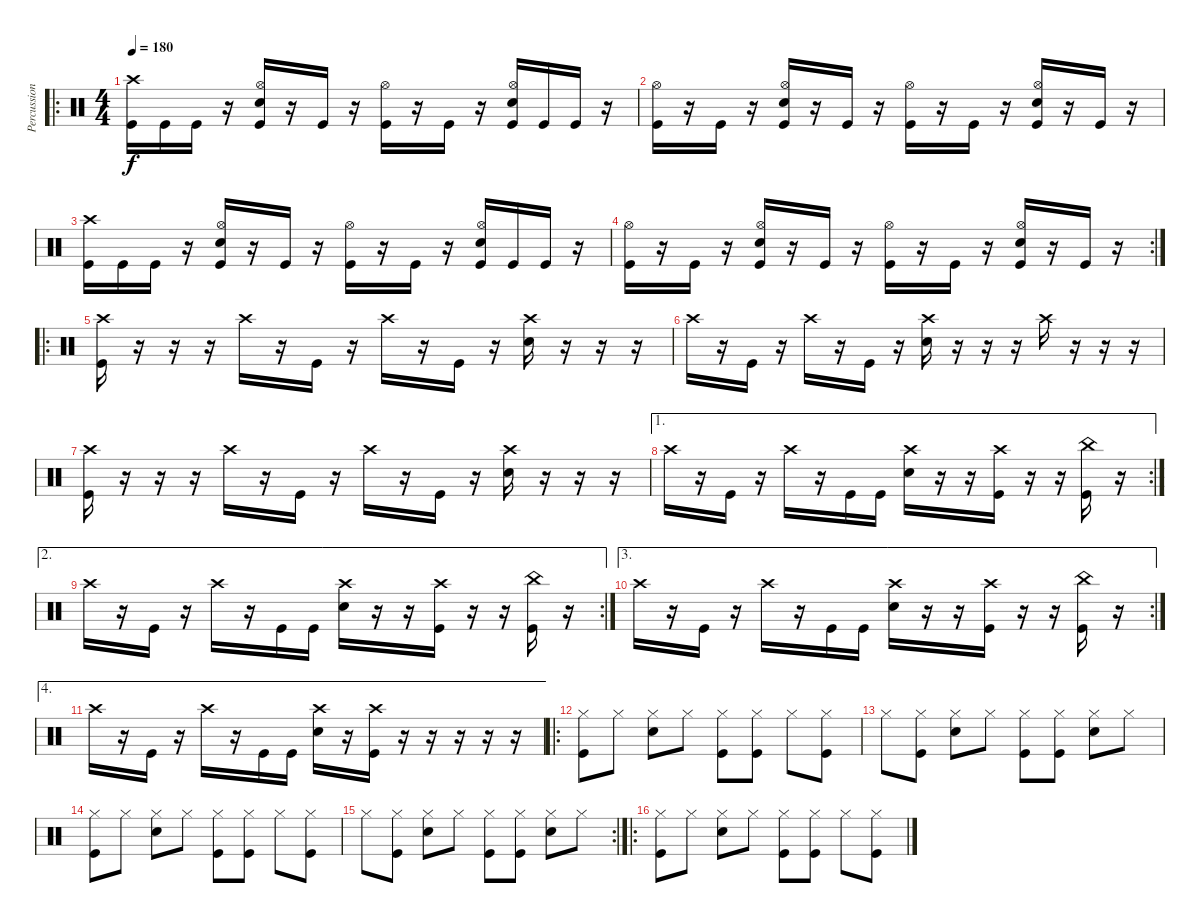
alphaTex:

\track ("Percussion" "Percussion") {instrument percussion}
\staff {score}
\articulation defaults
\ro
\ts (4 4)
\tempo 180
\clef neutral
\ks c
("Crash high (hit)" "Kick (hit)").16{dy f} "Kick (hit)".16 "Kick (hit)".16 r.16 ("Hi-Hat (open)" "Electric Snare (hit)" "Kick (hit)").16 r.16 "Kick (hit)".16 r.16 ("Hi-Hat (open)" "Kick (hit)").16 r.16 "Kick (hit)".16 r.16 ("Hi-Hat (open)" "Electric Snare (hit)" "Kick (hit)").16 "Kick (hit)".16 "Kick (hit)".16 r.16 |
("Hi-Hat (open)" "Kick (hit)").16 r.16 "Kick (hit)".16 r.16 ("Hi-Hat (open)" "Electric Snare (hit)" "Kick (hit)").16 r.16 "Kick (hit)".16 r.16 ("Hi-Hat (open)" "Kick (hit)").16 r.16 "Kick (hit)".16 r.16 ("Hi-Hat (open)" "Electric Snare (hit)" "Kick (hit)").16 r.16 "Kick (hit)".16 r.16 |
("Crash high (hit)" "Kick (hit)").16 "Kick (hit)".16 "Kick (hit)".16 r.16 ("Hi-Hat (open)" "Electric Snare (hit)" "Kick (hit)").16 r.16 "Kick (hit)".16 r.16 ("Hi-Hat (open)" "Kick (hit)").16 r.16 "Kick (hit)".16 r.16 ("Hi-Hat (open)" "Electric Snare (hit)" "Kick (hit)").16 "Kick (hit)".16 "Kick (hit)".16 r.16 |
\rc 2
("Hi-Hat (open)" "Kick (hit)").16 r.16 "Kick (hit)".16 r.16 ("Hi-Hat (open)" "Electric Snare (hit)" "Kick (hit)").16 r.16 "Kick (hit)".16 r.16 ("Hi-Hat (open)" "Kick (hit)").16 r.16 "Kick (hit)".16 r.16 ("Hi-Hat (open)" "Electric Snare (hit)" "Kick (hit)").16 r.16 "Kick (hit)".16 r.16 |
\ro
("Crash high (hit)" "Kick (hit)").16 r.16 r.16 r.16 "Crash high (hit)".16 r.16 "Kick (hit)".16 r.16 "Crash high (hit)".16 r.16 "Kick (hit)".16 r.16 ("Crash high (hit)" "Electric Snare (hit)").16 r.16 r.16 r.16 |
"Crash high (hit)".16 r.16 "Kick (hit)".16 r.16 "Crash high (hit)".16 r.16 "Kick (hit)".16 r.16 ("Crash high (hit)" "Electric Snare (hit)").16 r.16 r.16 r.16 "Crash high (hit)".16 r.16 r.16 r.16 |
("Crash high (hit)" "Kick (hit)").16 r.16 r.16 r.16 "Crash high (hit)".16 r.16 "Kick (hit)".16 r.16 "Crash high (hit)".16 r.16 "Kick (hit)".16 r.16 ("Crash high (hit)" "Electric Snare (hit)").16 r.16 r.16 r.16 |
\ae 1
\rc 2 "Crash high (hit)".16
r.16 "Kick (hit)".16 r.16 "Crash high (hit)".16 r.16 "Kick (hit)".16 "Kick (hit)".16 ("Crash high (hit)" "Electric Snare (hit)").16 r.16 r.16 ("Crash high (hit)" "Kick (hit)").16 r.16 r.16 ("China (hit)" "Kick (hit)").16 r.16 |
\ae 2
\rc 2 "Crash high (hit)".16
r.16 "Kick (hit)".16 r.16 "Crash high (hit)".16 r.16 "Kick (hit)".16 "Kick (hit)".16 ("Crash high (hit)" "Electric Snare (hit)").16 r.16 r.16 ("Crash high (hit)" "Kick (hit)").16 r.16 r.16 ("China (hit)" "Kick (hit)").16 r.16 |
\ae 3
\rc 2 "Crash high (hit)".16
r.16 "Kick (hit)".16 r.16 "Crash high (hit)".16 r.16 "Kick (hit)".16 "Kick (hit)".16 ("Crash high (hit)" "Electric Snare (hit)").16 r.16 r.16 ("Crash high (hit)" "Kick (hit)").16 r.16 r.16 ("China (hit)" "Kick (hit)").16 r.16 |
\ae 4 "Crash high (hit)".16
r.16 "Kick (hit)".16 r.16 "Crash high (hit)".16 r.16 "Kick (hit)".16 "Kick (hit)".16 ("Crash high (hit)" "Electric Snare (hit)").16 r.16 ("Crash high (hit)" "Kick (hit)").16 r.16 r.16 r.16 r.16 r.16 |
\ro
("Hi-Hat (closed)" "Kick (hit)").8 "Hi-Hat (closed)".8 ("Hi-Hat (closed)" "Electric Snare (hit)").8 "Hi-Hat (closed)".8 ("Hi-Hat (closed)" "Kick (hit)").8 ("Hi-Hat (closed)" "Kick (hit)").8 "Hi-Hat (closed)".8 ("Hi-Hat (closed)" "Kick (hit)").8 |
"Hi-Hat (closed)".8 ("Hi-Hat (closed)" "Kick (hit)").8 ("Hi-Hat (closed)" "Electric Snare (hit)").8 "Hi-Hat (closed)".8 ("Hi-Hat (closed)" "Kick (hit)").8 ("Hi-Hat (closed)" "Kick (hit)").8 ("Hi-Hat (closed)" "Electric Snare (hit)").8 "Hi-Hat (closed)".8 |
("Hi-Hat (closed)" "Kick (hit)").8 "Hi-Hat (closed)".8 ("Hi-Hat (closed)" "Electric Snare (hit)").8 "Hi-Hat (closed)".8 ("Hi-Hat (closed)" "Kick (hit)").8 ("Hi-Hat (closed)" "Kick (hit)").8 "Hi-Hat (closed)".8 ("Hi-Hat (closed)" "Kick (hit)").8 |
\rc 2 "Hi-Hat (closed)".8
("Hi-Hat (closed)" "Kick (hit)").8 ("Hi-Hat (closed)" "Electric Snare (hit)").8 "Hi-Hat (closed)".8 ("Hi-Hat (closed)" "Kick (hit)").8 ("Hi-Hat (closed)" "Kick (hit)").8 ("Hi-Hat (closed)" "Electric Snare (hit)").8 "Hi-Hat (closed)".8 |
\ro
("Hi-Hat (closed)" "Kick (hit)").8 "Hi-Hat (closed)".8 ("Hi-Hat (closed)" "Electric Snare (hit)").8 "Hi-Hat (closed)".8 ("Hi-Hat (closed)" "Kick (hit)").8 ("Hi-Hat (closed)" "Kick (hit)").8 "Hi-Hat (closed)".8 ("Hi-Hat (closed)" "Kick (hit)").8
